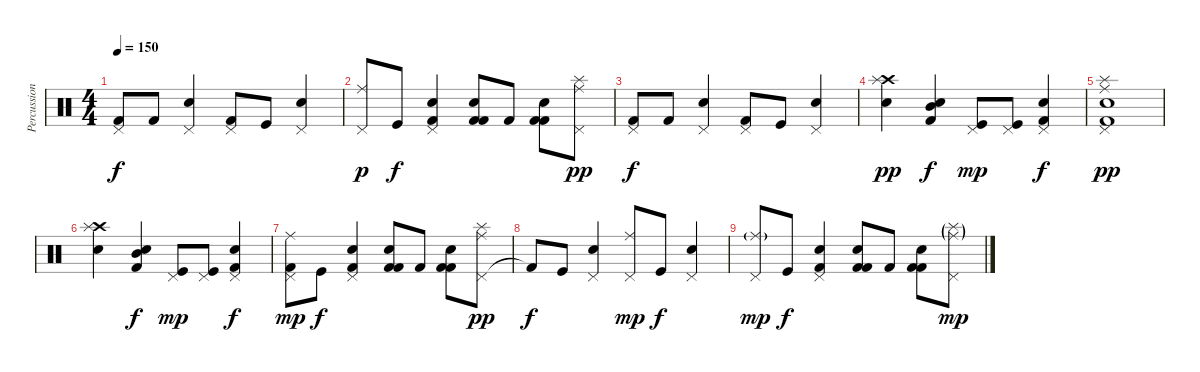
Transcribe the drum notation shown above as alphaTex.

\track ("Percussion" "Percussion") {instrument percussion}
\staff {score}
\articulation defaults
\ts (4 4)
\tempo 150
\clef neutral
\ks c
("Kick (hit) 2" "Pedal Hi-Hat (hit)").8{dy f} "Kick (hit) 2".8 ("Electric Snare (hit)" "Pedal Hi-Hat (hit)").4 ("Kick (hit) 2" "Pedal Hi-Hat (hit)").8 "Kick (hit)".8 ("Electric Snare (hit)" "Pedal Hi-Hat (hit)").4 |
("Pedal Hi-Hat (hit)" "Ride (middle)").8{dy p} "Kick (hit)".8{dy f} ("Electric Snare (hit)" "Kick (hit) 2" "Pedal Hi-Hat (hit)").4 ("Kick (hit) 2" "Kick (hit) 2" "Electric Snare (hit)").8 "Kick (hit) 2".8 ("Kick (hit) 2" "Kick (hit) 2" "Electric Snare (hit)").8 ("Pedal Hi-Hat (hit)" "Ride (middle)" "Splash (hit)").8{dy pp} |
("Kick (hit) 2" "Pedal Hi-Hat (hit)").8{dy f} "Kick (hit) 2".8 ("Electric Snare (hit)" "Pedal Hi-Hat (hit)").4 ("Kick (hit) 2" "Pedal Hi-Hat (hit)").8 "Kick (hit)".8 ("Electric Snare (hit)" "Pedal Hi-Hat (hit)").4 |
("Electric Snare (hit)" "Crash high (hit)" "Splash (hit)").4{dy pp} ("Electric Snare (hit)" "Mid Tom (hit)" "Kick (hit) 2").4{dy f} ("Pedal Hi-Hat (hit)" "Kick (hit)").8{dy mp} ("Pedal Hi-Hat (hit)" "Kick (hit)").8 ("Electric Snare (hit)" "Kick (hit) 2" "Pedal Hi-Hat (hit)").4{dy f} |
("Electric Snare (hit)" "Pedal Hi-Hat (hit)" "Kick (hit) 2" "Ride (middle)" "Splash (hit)").1{dy pp} |
("Electric Snare (hit)" "Crash high (hit)" "Splash (hit)").4 ("Electric Snare (hit)" "Mid Tom (hit)" "Kick (hit) 2").4{dy f} ("Pedal Hi-Hat (hit)" "Kick (hit)").8{dy mp} ("Pedal Hi-Hat (hit)" "Kick (hit)").8 ("Electric Snare (hit)" "Kick (hit) 2" "Pedal Hi-Hat (hit)").4{dy f} |
("Pedal Hi-Hat (hit)" "Kick (hit) 2" "Ride (middle)").8{dy mp} "Kick (hit)".8{dy f} ("Electric Snare (hit)" "Kick (hit) 2" "Pedal Hi-Hat (hit)").4 ("Kick (hit) 2" "Kick (hit) 2" "Electric Snare (hit)").8 "Kick (hit) 2".8 ("Kick (hit) 2" "Kick (hit) 2" "Electric Snare (hit)").8 ("Pedal Hi-Hat (hit)" "Ride (middle)" "Splash (hit)").8{dy pp} |
"Kick (hit) 2"{t}.8{dy f} "Kick (hit)".8 ("Electric Snare (hit)" "Pedal Hi-Hat (hit)").4 ("Pedal Hi-Hat (hit)" "Ride (middle)").8{dy mp} "Kick (hit)".8{dy f} ("Electric Snare (hit)" "Pedal Hi-Hat (hit)").4 |
("Pedal Hi-Hat (hit)" "Ride (middle)"{g}).8{dy mp} "Kick (hit)".8{dy f} ("Electric Snare (hit)" "Kick (hit) 2" "Pedal Hi-Hat (hit)").4 ("Kick (hit) 2" "Kick (hit) 2" "Electric Snare (hit)").8 "Kick (hit) 2".8 ("Kick (hit) 2" "Kick (hit) 2" "Electric Snare (hit)").8 ("Pedal Hi-Hat (hit)" "Splash (hit)"{g} "Ride (middle)"{g}).8{dy mp}
